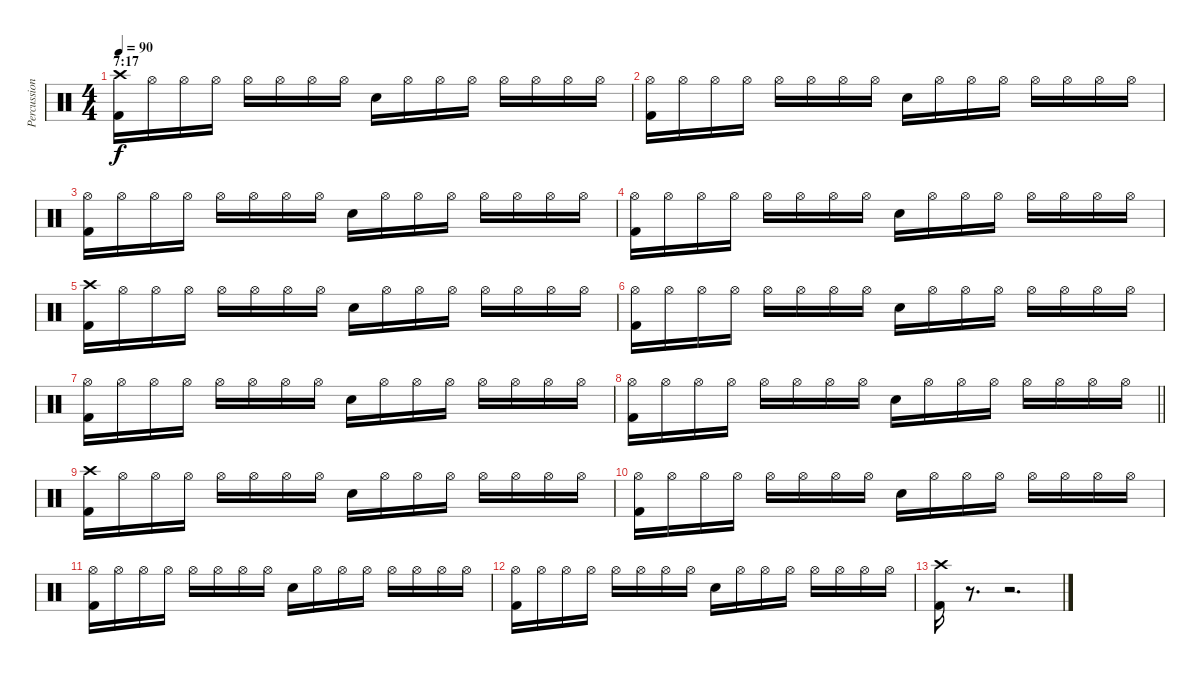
\track ("Percussion" "Percussion") {instrument percussion}
\staff {score}
\articulation defaults
\ts (4 4)
\section ("" "7:17")
\tempo 90
\clef neutral
\ks c
("Crash high (hit)" "Kick (hit) 2").16{dy f} "Hi-Hat (open)".16 "Hi-Hat (open)".16 "Hi-Hat (open)".16 "Hi-Hat (open)".16 "Hi-Hat (open)".16 "Hi-Hat (open)".16 "Hi-Hat (open)".16 "Snare (hit) 2".16 "Hi-Hat (open)".16 "Hi-Hat (open)".16 "Hi-Hat (open)".16 "Hi-Hat (open)".16 "Hi-Hat (open)".16 "Hi-Hat (open)".16 "Hi-Hat (open)".16 |
("Hi-Hat (open)" "Kick (hit) 2").16 "Hi-Hat (open)".16 "Hi-Hat (open)".16 "Hi-Hat (open)".16 "Hi-Hat (open)".16 "Hi-Hat (open)".16 "Hi-Hat (open)".16 "Hi-Hat (open)".16 "Snare (hit) 2".16 "Hi-Hat (open)".16 "Hi-Hat (open)".16 "Hi-Hat (open)".16 "Hi-Hat (open)".16 "Hi-Hat (open)".16 "Hi-Hat (open)".16 "Hi-Hat (open)".16 |
("Hi-Hat (open)" "Kick (hit) 2").16 "Hi-Hat (open)".16 "Hi-Hat (open)".16 "Hi-Hat (open)".16 "Hi-Hat (open)".16 "Hi-Hat (open)".16 "Hi-Hat (open)".16 "Hi-Hat (open)".16 "Snare (hit) 2".16 "Hi-Hat (open)".16 "Hi-Hat (open)".16 "Hi-Hat (open)".16 "Hi-Hat (open)".16 "Hi-Hat (open)".16 "Hi-Hat (open)".16 "Hi-Hat (open)".16 |
("Hi-Hat (open)" "Kick (hit) 2").16 "Hi-Hat (open)".16 "Hi-Hat (open)".16 "Hi-Hat (open)".16 "Hi-Hat (open)".16 "Hi-Hat (open)".16 "Hi-Hat (open)".16 "Hi-Hat (open)".16 "Snare (hit) 2".16 "Hi-Hat (open)".16 "Hi-Hat (open)".16 "Hi-Hat (open)".16 "Hi-Hat (open)".16 "Hi-Hat (open)".16 "Hi-Hat (open)".16 "Hi-Hat (open)".16 |
("Crash high (hit)" "Kick (hit) 2").16 "Hi-Hat (open)".16 "Hi-Hat (open)".16 "Hi-Hat (open)".16 "Hi-Hat (open)".16 "Hi-Hat (open)".16 "Hi-Hat (open)".16 "Hi-Hat (open)".16 "Snare (hit) 2".16 "Hi-Hat (open)".16 "Hi-Hat (open)".16 "Hi-Hat (open)".16 "Hi-Hat (open)".16 "Hi-Hat (open)".16 "Hi-Hat (open)".16 "Hi-Hat (open)".16 |
("Hi-Hat (open)" "Kick (hit) 2").16 "Hi-Hat (open)".16 "Hi-Hat (open)".16 "Hi-Hat (open)".16 "Hi-Hat (open)".16 "Hi-Hat (open)".16 "Hi-Hat (open)".16 "Hi-Hat (open)".16 "Snare (hit) 2".16 "Hi-Hat (open)".16 "Hi-Hat (open)".16 "Hi-Hat (open)".16 "Hi-Hat (open)".16 "Hi-Hat (open)".16 "Hi-Hat (open)".16 "Hi-Hat (open)".16 |
("Hi-Hat (open)" "Kick (hit) 2").16 "Hi-Hat (open)".16 "Hi-Hat (open)".16 "Hi-Hat (open)".16 "Hi-Hat (open)".16 "Hi-Hat (open)".16 "Hi-Hat (open)".16 "Hi-Hat (open)".16 "Snare (hit) 2".16 "Hi-Hat (open)".16 "Hi-Hat (open)".16 "Hi-Hat (open)".16 "Hi-Hat (open)".16 "Hi-Hat (open)".16 "Hi-Hat (open)".16 "Hi-Hat (open)".16 |
\barLineRight lightlight
("Hi-Hat (open)" "Kick (hit) 2").16 "Hi-Hat (open)".16 "Hi-Hat (open)".16 "Hi-Hat (open)".16 "Hi-Hat (open)".16 "Hi-Hat (open)".16 "Hi-Hat (open)".16 "Hi-Hat (open)".16 "Snare (hit) 2".16 "Hi-Hat (open)".16 "Hi-Hat (open)".16 "Hi-Hat (open)".16 "Hi-Hat (open)".16 "Hi-Hat (open)".16 "Hi-Hat (open)".16 "Hi-Hat (open)".16 |
("Crash high (hit)" "Kick (hit) 2").16 "Hi-Hat (open)".16 "Hi-Hat (open)".16 "Hi-Hat (open)".16 "Hi-Hat (open)".16 "Hi-Hat (open)".16 "Hi-Hat (open)".16 "Hi-Hat (open)".16 "Snare (hit) 2".16 "Hi-Hat (open)".16 "Hi-Hat (open)".16 "Hi-Hat (open)".16 "Hi-Hat (open)".16 "Hi-Hat (open)".16 "Hi-Hat (open)".16 "Hi-Hat (open)".16 |
("Hi-Hat (open)" "Kick (hit) 2").16 "Hi-Hat (open)".16 "Hi-Hat (open)".16 "Hi-Hat (open)".16 "Hi-Hat (open)".16 "Hi-Hat (open)".16 "Hi-Hat (open)".16 "Hi-Hat (open)".16 "Snare (hit) 2".16 "Hi-Hat (open)".16 "Hi-Hat (open)".16 "Hi-Hat (open)".16 "Hi-Hat (open)".16 "Hi-Hat (open)".16 "Hi-Hat (open)".16 "Hi-Hat (open)".16 |
("Hi-Hat (open)" "Kick (hit) 2").16 "Hi-Hat (open)".16 "Hi-Hat (open)".16 "Hi-Hat (open)".16 "Hi-Hat (open)".16 "Hi-Hat (open)".16 "Hi-Hat (open)".16 "Hi-Hat (open)".16 "Snare (hit) 2".16 "Hi-Hat (open)".16 "Hi-Hat (open)".16 "Hi-Hat (open)".16 "Hi-Hat (open)".16 "Hi-Hat (open)".16 "Hi-Hat (open)".16 "Hi-Hat (open)".16 |
("Hi-Hat (open)" "Kick (hit) 2").16 "Hi-Hat (open)".16 "Hi-Hat (open)".16 "Hi-Hat (open)".16 "Hi-Hat (open)".16 "Hi-Hat (open)".16 "Hi-Hat (open)".16 "Hi-Hat (open)".16 "Snare (hit) 2".16 "Hi-Hat (open)".16 "Hi-Hat (open)".16 "Hi-Hat (open)".16 "Hi-Hat (open)".16 "Hi-Hat (open)".16 "Hi-Hat (open)".16 "Hi-Hat (open)".16 |
("Crash high (hit)" "Kick (hit) 2").16 r.8{d} r.2{d}
